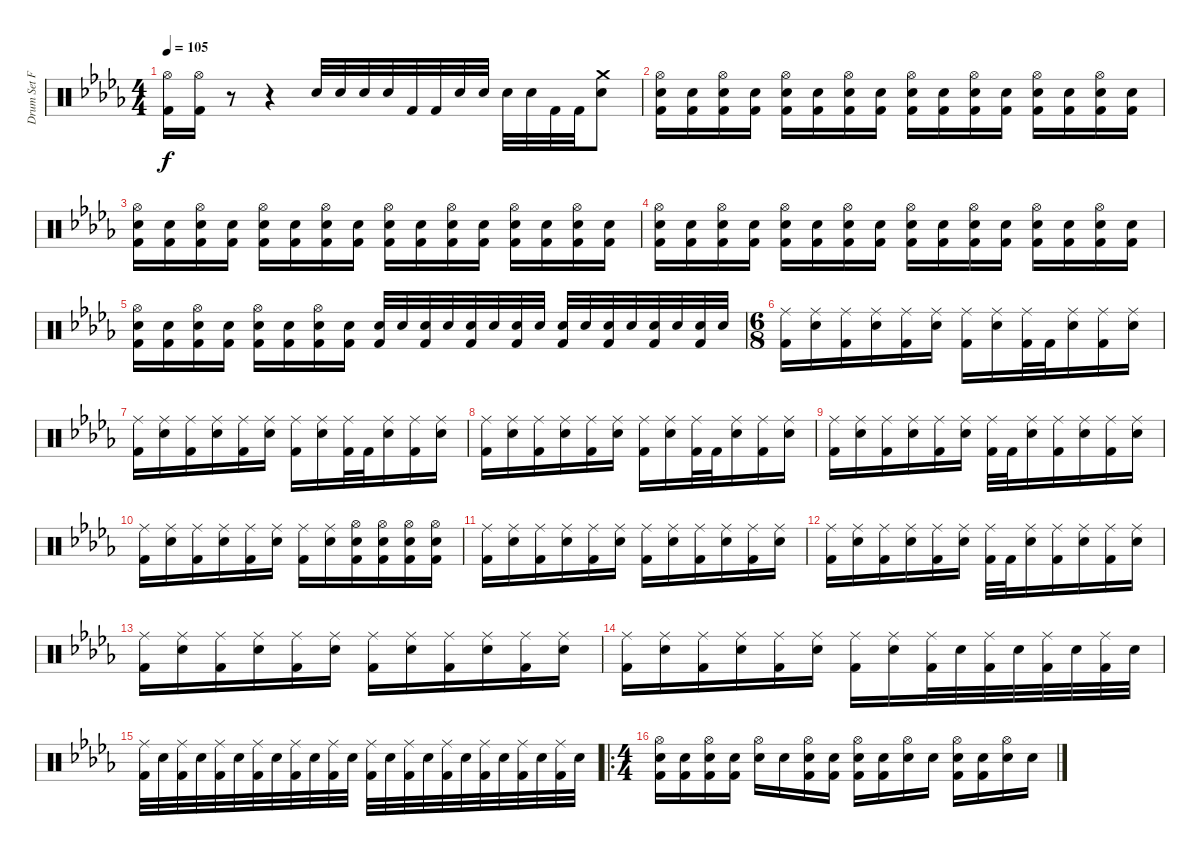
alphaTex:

\track ("Drum Set Franz Brachmann" "Drum Set F") {instrument percussion}
\staff {score}
\articulation defaults
\ts (4 4)
\tempo 105
\clef neutral
\ks bbminor
("Hi-Hat (open)" "Kick (hit) 2").16{dy f} ("Hi-Hat (open)" "Kick (hit) 2").16 r.8 r.4 "Electric Snare (hit)".32 "Electric Snare (hit)".32 "Electric Snare (hit)".32 "Electric Snare (hit)".32 "Kick (hit) 2".32 "Kick (hit) 2".32 "Electric Snare (hit)".32 "Electric Snare (hit)".32 "Electric Snare (hit)".32 "Electric Snare (hit)".32 "Kick (hit) 2".32 "Kick (hit) 2".32 ("Crash medium (hit)" "Electric Snare (hit)").8 |
("Hi-Hat (open)" "Electric Snare (hit)" "Kick (hit) 2").16 ("Electric Snare (hit)" "Kick (hit) 2").16 ("Hi-Hat (open)" "Electric Snare (hit)" "Kick (hit) 2").16 ("Electric Snare (hit)" "Kick (hit) 2").16 ("Hi-Hat (open)" "Electric Snare (hit)" "Kick (hit) 2").16 ("Electric Snare (hit)" "Kick (hit) 2").16 ("Hi-Hat (open)" "Electric Snare (hit)" "Kick (hit) 2").16 ("Electric Snare (hit)" "Kick (hit) 2").16 ("Hi-Hat (open)" "Electric Snare (hit)" "Kick (hit) 2").16 ("Electric Snare (hit)" "Kick (hit) 2").16 ("Hi-Hat (open)" "Electric Snare (hit)" "Kick (hit) 2").16 ("Electric Snare (hit)" "Kick (hit) 2").16 ("Hi-Hat (open)" "Electric Snare (hit)" "Kick (hit) 2").16 ("Electric Snare (hit)" "Kick (hit) 2").16 ("Hi-Hat (open)" "Electric Snare (hit)" "Kick (hit) 2").16 ("Electric Snare (hit)" "Kick (hit) 2").16 |
("Hi-Hat (open)" "Electric Snare (hit)" "Kick (hit) 2").16 ("Electric Snare (hit)" "Kick (hit) 2").16 ("Hi-Hat (open)" "Electric Snare (hit)" "Kick (hit) 2").16 ("Electric Snare (hit)" "Kick (hit) 2").16 ("Hi-Hat (open)" "Electric Snare (hit)" "Kick (hit) 2").16 ("Electric Snare (hit)" "Kick (hit) 2").16 ("Hi-Hat (open)" "Electric Snare (hit)" "Kick (hit) 2").16 ("Electric Snare (hit)" "Kick (hit) 2").16 ("Hi-Hat (open)" "Electric Snare (hit)" "Kick (hit) 2").16 ("Electric Snare (hit)" "Kick (hit) 2").16 ("Hi-Hat (open)" "Electric Snare (hit)" "Kick (hit) 2").16 ("Electric Snare (hit)" "Kick (hit) 2").16 ("Hi-Hat (open)" "Electric Snare (hit)" "Kick (hit) 2").16 ("Electric Snare (hit)" "Kick (hit) 2").16 ("Hi-Hat (open)" "Electric Snare (hit)" "Kick (hit) 2").16 ("Electric Snare (hit)" "Kick (hit) 2").16 |
("Hi-Hat (open)" "Electric Snare (hit)" "Kick (hit) 2").16 ("Electric Snare (hit)" "Kick (hit) 2").16 ("Hi-Hat (open)" "Electric Snare (hit)" "Kick (hit) 2").16 ("Electric Snare (hit)" "Kick (hit) 2").16 ("Hi-Hat (open)" "Electric Snare (hit)" "Kick (hit) 2").16 ("Electric Snare (hit)" "Kick (hit) 2").16 ("Hi-Hat (open)" "Electric Snare (hit)" "Kick (hit) 2").16 ("Electric Snare (hit)" "Kick (hit) 2").16 ("Hi-Hat (open)" "Electric Snare (hit)" "Kick (hit) 2").16 ("Electric Snare (hit)" "Kick (hit) 2").16 ("Hi-Hat (open)" "Electric Snare (hit)" "Kick (hit) 2").16 ("Electric Snare (hit)" "Kick (hit) 2").16 ("Hi-Hat (open)" "Electric Snare (hit)" "Kick (hit) 2").16 ("Electric Snare (hit)" "Kick (hit) 2").16 ("Hi-Hat (open)" "Electric Snare (hit)" "Kick (hit) 2").16 ("Electric Snare (hit)" "Kick (hit) 2").16 |
("Hi-Hat (open)" "Electric Snare (hit)" "Kick (hit) 2").16 ("Electric Snare (hit)" "Kick (hit) 2").16 ("Hi-Hat (open)" "Electric Snare (hit)" "Kick (hit) 2").16 ("Electric Snare (hit)" "Kick (hit) 2").16 ("Hi-Hat (open)" "Electric Snare (hit)" "Kick (hit) 2").16 ("Electric Snare (hit)" "Kick (hit) 2").16 ("Hi-Hat (open)" "Electric Snare (hit)" "Kick (hit) 2").16 ("Electric Snare (hit)" "Kick (hit) 2").16 ("Electric Snare (hit)" "Kick (hit) 2").32 "Electric Snare (hit)".32 ("Electric Snare (hit)" "Kick (hit) 2").32 "Electric Snare (hit)".32 ("Electric Snare (hit)" "Kick (hit) 2").32 "Electric Snare (hit)".32 ("Electric Snare (hit)" "Kick (hit) 2").32 "Electric Snare (hit)".32 ("Electric Snare (hit)" "Kick (hit) 2").32 "Electric Snare (hit)".32 ("Electric Snare (hit)" "Kick (hit) 2").32 "Electric Snare (hit)".32 ("Electric Snare (hit)" "Kick (hit) 2").32 "Electric Snare (hit)".32 ("Electric Snare (hit)" "Kick (hit) 2").32 "Electric Snare (hit)".32 |
\ts (6 8)
("Ride (middle)" "Kick (hit) 2").16 ("Ride (middle)" "Electric Snare (hit)").16 ("Ride (middle)" "Kick (hit) 2").16 ("Ride (middle)" "Electric Snare (hit)").16 ("Ride (middle)" "Kick (hit) 2").16 ("Ride (middle)" "Electric Snare (hit)").16 ("Ride (middle)" "Kick (hit) 2").16 ("Ride (middle)" "Electric Snare (hit)").16 ("Ride (middle)" "Kick (hit) 2").32 "Kick (hit) 2".32 ("Ride (middle)" "Electric Snare (hit)").16 ("Ride (middle)" "Kick (hit) 2").16 ("Ride (middle)" "Electric Snare (hit)").16 |
("Ride (middle)" "Kick (hit) 2").16 ("Ride (middle)" "Electric Snare (hit)").16 ("Ride (middle)" "Kick (hit) 2").16 ("Ride (middle)" "Electric Snare (hit)").16 ("Ride (middle)" "Kick (hit) 2").16 ("Ride (middle)" "Electric Snare (hit)").16 ("Ride (middle)" "Kick (hit) 2").16 ("Ride (middle)" "Electric Snare (hit)").16 ("Ride (middle)" "Kick (hit) 2").32 "Kick (hit) 2".32 ("Ride (middle)" "Electric Snare (hit)").16 ("Ride (middle)" "Kick (hit) 2").16 ("Ride (middle)" "Electric Snare (hit)").16 |
("Ride (middle)" "Kick (hit) 2").16 ("Ride (middle)" "Electric Snare (hit)").16 ("Ride (middle)" "Kick (hit) 2").16 ("Ride (middle)" "Electric Snare (hit)").16 ("Ride (middle)" "Kick (hit) 2").16 ("Ride (middle)" "Electric Snare (hit)").16 ("Ride (middle)" "Kick (hit) 2").16 ("Ride (middle)" "Electric Snare (hit)").16 ("Ride (middle)" "Kick (hit) 2").32 "Kick (hit) 2".32 ("Ride (middle)" "Electric Snare (hit)").16 ("Ride (middle)" "Kick (hit) 2").16 ("Ride (middle)" "Electric Snare (hit)").16 |
("Ride (middle)" "Kick (hit) 2").16 ("Ride (middle)" "Electric Snare (hit)").16 ("Ride (middle)" "Kick (hit) 2").16 ("Ride (middle)" "Electric Snare (hit)").16 ("Ride (middle)" "Kick (hit) 2").16 ("Ride (middle)" "Electric Snare (hit)").16 ("Ride (middle)" "Kick (hit) 2").32 "Kick (hit) 2".32 ("Ride (middle)" "Electric Snare (hit)").16 ("Ride (middle)" "Kick (hit) 2").16 ("Ride (middle)" "Electric Snare (hit)").16 ("Ride (middle)" "Kick (hit) 2").16 ("Ride (middle)" "Electric Snare (hit)").16 |
("Ride (middle)" "Kick (hit) 2").16 ("Ride (middle)" "Electric Snare (hit)").16 ("Ride (middle)" "Kick (hit) 2").16 ("Ride (middle)" "Electric Snare (hit)").16 ("Ride (middle)" "Kick (hit) 2").16 ("Ride (middle)" "Electric Snare (hit)").16 ("Ride (middle)" "Kick (hit) 2").16 ("Ride (middle)" "Electric Snare (hit)").16 ("Hi-Hat (open)" "Electric Snare (hit)" "Kick (hit) 2").16 ("Hi-Hat (open)" "Electric Snare (hit)" "Kick (hit) 2").16 ("Hi-Hat (open)" "Electric Snare (hit)" "Kick (hit) 2").16 ("Hi-Hat (open)" "Electric Snare (hit)" "Kick (hit) 2").16 |
("Ride (middle)" "Kick (hit) 2").16 ("Ride (middle)" "Electric Snare (hit)").16 ("Ride (middle)" "Kick (hit) 2").16 ("Ride (middle)" "Electric Snare (hit)").16 ("Ride (middle)" "Kick (hit) 2").16 ("Ride (middle)" "Electric Snare (hit)").16 ("Ride (middle)" "Kick (hit) 2").16 ("Ride (middle)" "Electric Snare (hit)").16 ("Ride (middle)" "Kick (hit) 2").16 ("Ride (middle)" "Electric Snare (hit)").16 ("Ride (middle)" "Kick (hit) 2").16 ("Ride (middle)" "Electric Snare (hit)").16 |
("Ride (middle)" "Kick (hit) 2").16 ("Ride (middle)" "Electric Snare (hit)").16 ("Ride (middle)" "Kick (hit) 2").16 ("Ride (middle)" "Electric Snare (hit)").16 ("Ride (middle)" "Kick (hit) 2").16 ("Ride (middle)" "Electric Snare (hit)").16 ("Ride (middle)" "Kick (hit) 2").32 "Kick (hit) 2".32 ("Ride (middle)" "Electric Snare (hit)").16 ("Ride (middle)" "Kick (hit) 2").16 ("Ride (middle)" "Electric Snare (hit)").16 ("Ride (middle)" "Kick (hit) 2").16 ("Ride (middle)" "Electric Snare (hit)").16 |
("Ride (middle)" "Kick (hit) 2").16 ("Ride (middle)" "Electric Snare (hit)").16 ("Ride (middle)" "Kick (hit) 2").16 ("Ride (middle)" "Electric Snare (hit)").16 ("Ride (middle)" "Kick (hit) 2").16 ("Ride (middle)" "Electric Snare (hit)").16 ("Ride (middle)" "Kick (hit) 2").16 ("Ride (middle)" "Electric Snare (hit)").16 ("Ride (middle)" "Kick (hit) 2").16 ("Ride (middle)" "Electric Snare (hit)").16 ("Ride (middle)" "Kick (hit) 2").16 ("Ride (middle)" "Electric Snare (hit)").16 |
("Ride (middle)" "Kick (hit) 2").16 ("Ride (middle)" "Electric Snare (hit)").16 ("Ride (middle)" "Kick (hit) 2").16 ("Ride (middle)" "Electric Snare (hit)").16 ("Ride (middle)" "Kick (hit) 2").16 ("Ride (middle)" "Electric Snare (hit)").16 ("Ride (middle)" "Kick (hit) 2").16 ("Ride (middle)" "Electric Snare (hit)").16 ("Ride (middle)" "Kick (hit) 2").32 "Electric Snare (hit)".32 ("Ride (middle)" "Kick (hit) 2").32 "Electric Snare (hit)".32 ("Ride (middle)" "Kick (hit) 2").32 "Electric Snare (hit)".32 ("Ride (middle)" "Kick (hit) 2").32 "Electric Snare (hit)".32 |
("Ride (middle)" "Kick (hit) 2").32 "Electric Snare (hit)".32 ("Ride (middle)" "Kick (hit) 2").32 "Electric Snare (hit)".32 ("Ride (middle)" "Kick (hit) 2").32 "Electric Snare (hit)".32 ("Ride (middle)" "Kick (hit) 2").32 "Electric Snare (hit)".32 ("Ride (middle)" "Kick (hit) 2").32 "Electric Snare (hit)".32 ("Ride (middle)" "Kick (hit) 2").32 "Electric Snare (hit)".32 ("Ride (middle)" "Kick (hit) 2").32 "Electric Snare (hit)".32 ("Ride (middle)" "Kick (hit) 2").32 "Electric Snare (hit)".32 ("Ride (middle)" "Kick (hit) 2").32 "Electric Snare (hit)".32 ("Ride (middle)" "Kick (hit) 2").32 "Electric Snare (hit)".32 ("Ride (middle)" "Kick (hit) 2").32 "Electric Snare (hit)".32 ("Ride (middle)" "Kick (hit) 2").32 "Electric Snare (hit)".32 |
\ro
\ts (4 4)
("Hi-Hat (open)" "Electric Snare (hit)" "Kick (hit) 2").16 ("Electric Snare (hit)" "Kick (hit) 2").16 ("Hi-Hat (open)" "Electric Snare (hit)" "Kick (hit) 2").16 ("Electric Snare (hit)" "Kick (hit) 2").16 ("Hi-Hat (open)" "Electric Snare (hit)").16 "Electric Snare (hit)".16 ("Hi-Hat (open)" "Electric Snare (hit)" "Kick (hit) 2").16 ("Electric Snare (hit)" "Kick (hit) 2").16 ("Hi-Hat (open)" "Electric Snare (hit)" "Kick (hit) 2").16 ("Electric Snare (hit)" "Kick (hit) 2").16 ("Hi-Hat (open)" "Electric Snare (hit)").16 "Electric Snare (hit)".16 ("Hi-Hat (open)" "Electric Snare (hit)" "Kick (hit) 2").16 ("Electric Snare (hit)" "Kick (hit) 2").16 ("Hi-Hat (open)" "Electric Snare (hit)").16 "Electric Snare (hit)".16
